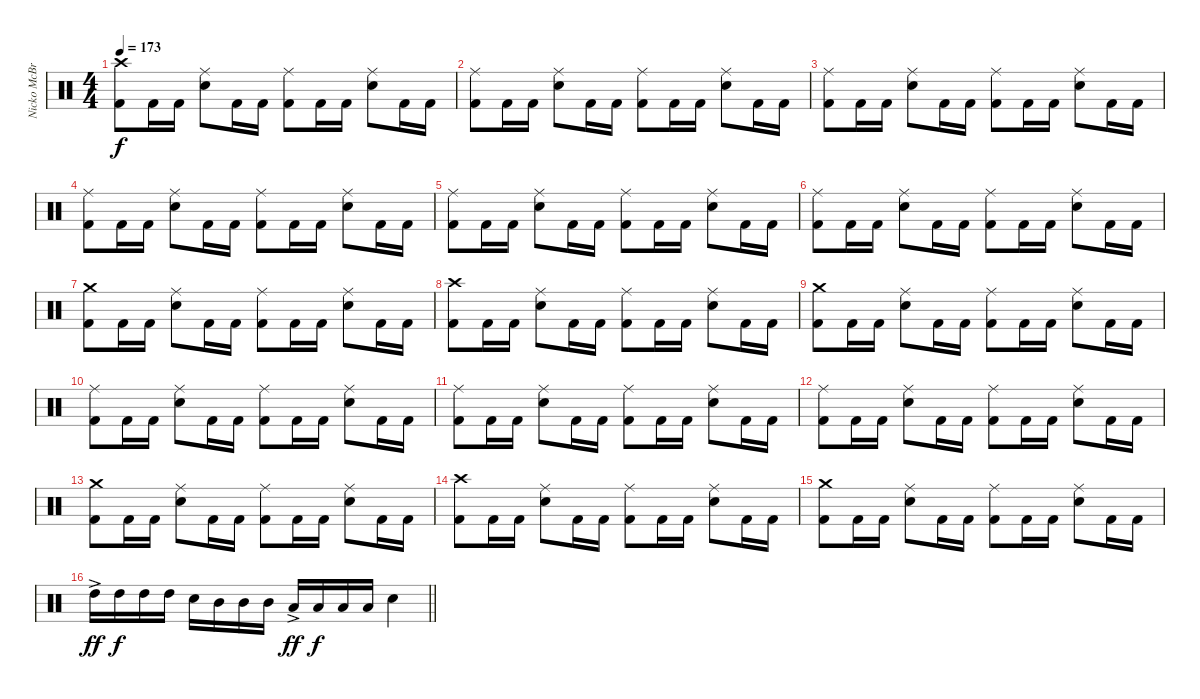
\track ("Nicko McBrain" "Nicko McBr") {instrument percussion}
\staff {score}
\articulation defaults
\ts (4 4)
\tempo 173
\clef neutral
\ks c
("Crash high (hit)" "Kick (hit) 2").8{dy f} "Kick (hit) 2".16 "Kick (hit) 2".16 ("Ride (middle)" "Electric Snare (hit)").8 "Kick (hit) 2".16 "Kick (hit) 2".16 ("Ride (middle)" "Kick (hit) 2").8 "Kick (hit) 2".16 "Kick (hit) 2".16 ("Ride (middle)" "Electric Snare (hit)").8 "Kick (hit) 2".16 "Kick (hit) 2".16 |
("Ride (middle)" "Kick (hit) 2").8 "Kick (hit) 2".16 "Kick (hit) 2".16 ("Ride (middle)" "Electric Snare (hit)").8 "Kick (hit) 2".16 "Kick (hit) 2".16 ("Ride (middle)" "Kick (hit) 2").8 "Kick (hit) 2".16 "Kick (hit) 2".16 ("Ride (middle)" "Electric Snare (hit)").8 "Kick (hit) 2".16 "Kick (hit) 2".16 |
("Ride (middle)" "Kick (hit) 2").8 "Kick (hit) 2".16 "Kick (hit) 2".16 ("Ride (middle)" "Electric Snare (hit)").8 "Kick (hit) 2".16 "Kick (hit) 2".16 ("Ride (middle)" "Kick (hit) 2").8 "Kick (hit) 2".16 "Kick (hit) 2".16 ("Ride (middle)" "Electric Snare (hit)").8 "Kick (hit) 2".16 "Kick (hit) 2".16 |
("Ride (middle)" "Kick (hit) 2").8 "Kick (hit) 2".16 "Kick (hit) 2".16 ("Ride (middle)" "Electric Snare (hit)").8 "Kick (hit) 2".16 "Kick (hit) 2".16 ("Ride (middle)" "Kick (hit) 2").8 "Kick (hit) 2".16 "Kick (hit) 2".16 ("Ride (middle)" "Electric Snare (hit)").8 "Kick (hit) 2".16 "Kick (hit) 2".16 |
("Ride (middle)" "Kick (hit) 2").8 "Kick (hit) 2".16 "Kick (hit) 2".16 ("Ride (middle)" "Electric Snare (hit)").8 "Kick (hit) 2".16 "Kick (hit) 2".16 ("Ride (middle)" "Kick (hit) 2").8 "Kick (hit) 2".16 "Kick (hit) 2".16 ("Ride (middle)" "Electric Snare (hit)").8 "Kick (hit) 2".16 "Kick (hit) 2".16 |
("Ride (middle)" "Kick (hit) 2").8 "Kick (hit) 2".16 "Kick (hit) 2".16 ("Ride (middle)" "Electric Snare (hit)").8 "Kick (hit) 2".16 "Kick (hit) 2".16 ("Ride (middle)" "Kick (hit) 2").8 "Kick (hit) 2".16 "Kick (hit) 2".16 ("Ride (middle)" "Electric Snare (hit)").8 "Kick (hit) 2".16 "Kick (hit) 2".16 |
("Crash medium (hit)" "Kick (hit) 2").8 "Kick (hit) 2".16 "Kick (hit) 2".16 ("Ride (middle)" "Electric Snare (hit)").8 "Kick (hit) 2".16 "Kick (hit) 2".16 ("Ride (middle)" "Kick (hit) 2").8 "Kick (hit) 2".16 "Kick (hit) 2".16 ("Ride (middle)" "Electric Snare (hit)").8 "Kick (hit) 2".16 "Kick (hit) 2".16 |
("Crash high (hit)" "Kick (hit) 2").8 "Kick (hit) 2".16 "Kick (hit) 2".16 ("Ride (middle)" "Electric Snare (hit)").8 "Kick (hit) 2".16 "Kick (hit) 2".16 ("Ride (middle)" "Kick (hit) 2").8 "Kick (hit) 2".16 "Kick (hit) 2".16 ("Ride (middle)" "Electric Snare (hit)").8 "Kick (hit) 2".16 "Kick (hit) 2".16 |
("Crash medium (hit)" "Kick (hit) 2").8 "Kick (hit) 2".16 "Kick (hit) 2".16 ("Ride (middle)" "Electric Snare (hit)").8 "Kick (hit) 2".16 "Kick (hit) 2".16 ("Ride (middle)" "Kick (hit) 2").8 "Kick (hit) 2".16 "Kick (hit) 2".16 ("Ride (middle)" "Electric Snare (hit)").8 "Kick (hit) 2".16 "Kick (hit) 2".16 |
("Ride (middle)" "Kick (hit) 2").8 "Kick (hit) 2".16 "Kick (hit) 2".16 ("Ride (middle)" "Electric Snare (hit)").8 "Kick (hit) 2".16 "Kick (hit) 2".16 ("Ride (middle)" "Kick (hit) 2").8 "Kick (hit) 2".16 "Kick (hit) 2".16 ("Ride (middle)" "Electric Snare (hit)").8 "Kick (hit) 2".16 "Kick (hit) 2".16 |
("Ride (middle)" "Kick (hit) 2").8 "Kick (hit) 2".16 "Kick (hit) 2".16 ("Ride (middle)" "Electric Snare (hit)").8 "Kick (hit) 2".16 "Kick (hit) 2".16 ("Ride (middle)" "Kick (hit) 2").8 "Kick (hit) 2".16 "Kick (hit) 2".16 ("Ride (middle)" "Electric Snare (hit)").8 "Kick (hit) 2".16 "Kick (hit) 2".16 |
("Ride (middle)" "Kick (hit) 2").8 "Kick (hit) 2".16 "Kick (hit) 2".16 ("Ride (middle)" "Electric Snare (hit)").8 "Kick (hit) 2".16 "Kick (hit) 2".16 ("Ride (middle)" "Kick (hit) 2").8 "Kick (hit) 2".16 "Kick (hit) 2".16 ("Ride (middle)" "Electric Snare (hit)").8 "Kick (hit) 2".16 "Kick (hit) 2".16 |
("Crash medium (hit)" "Kick (hit) 2").8 "Kick (hit) 2".16 "Kick (hit) 2".16 ("Ride (middle)" "Electric Snare (hit)").8 "Kick (hit) 2".16 "Kick (hit) 2".16 ("Ride (middle)" "Kick (hit) 2").8 "Kick (hit) 2".16 "Kick (hit) 2".16 ("Ride (middle)" "Electric Snare (hit)").8 "Kick (hit) 2".16 "Kick (hit) 2".16 |
("Crash high (hit)" "Kick (hit) 2").8 "Kick (hit) 2".16 "Kick (hit) 2".16 ("Ride (middle)" "Electric Snare (hit)").8 "Kick (hit) 2".16 "Kick (hit) 2".16 ("Ride (middle)" "Kick (hit) 2").8 "Kick (hit) 2".16 "Kick (hit) 2".16 ("Ride (middle)" "Electric Snare (hit)").8 "Kick (hit) 2".16 "Kick (hit) 2".16 |
("Crash medium (hit)" "Kick (hit) 2").8 "Kick (hit) 2".16 "Kick (hit) 2".16 ("Ride (middle)" "Electric Snare (hit)").8 "Kick (hit) 2".16 "Kick (hit) 2".16 ("Ride (middle)" "Kick (hit) 2").8 "Kick (hit) 2".16 "Kick (hit) 2".16 ("Ride (middle)" "Electric Snare (hit)").8 "Kick (hit) 2".16 "Kick (hit) 2".16 |
\barLineRight lightlight "High Tom (hit)"{ac}.16{dy ff} "High Tom (hit)".16{dy f} "High Tom (hit)".16 "High Tom (hit)".16 "Electric Snare (hit)".16 "Mid Tom (hit)".16 "Mid Tom (hit)".16 "Mid Tom (hit)".16 "Low Tom (hit)"{ac}.16{dy ff} "Low Tom (hit)".16{dy f} "Low Tom (hit)".16 "Low Tom (hit)".16 "Electric Snare (hit)".4
